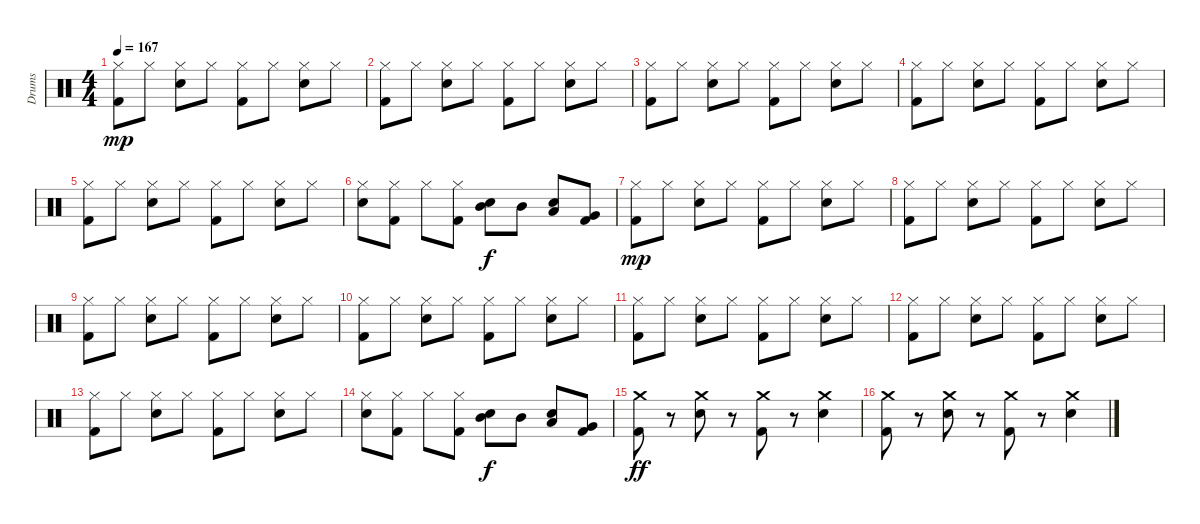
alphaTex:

\track ("Drums" "Drums") {instrument percussion}
\staff {score}
\articulation defaults
\ts (4 4)
\tempo 167
\clef neutral
\ks c
("Hi-Hat (closed)" "Kick (hit) 2").8{dy mp} "Hi-Hat (closed)".8 ("Hi-Hat (closed)" "Snare (hit) 2").8 "Hi-Hat (closed)".8 ("Hi-Hat (closed)" "Kick (hit) 2").8 "Hi-Hat (closed)".8 ("Hi-Hat (closed)" "Snare (hit) 2").8 "Hi-Hat (closed)".8 |
("Hi-Hat (closed)" "Kick (hit) 2").8 "Hi-Hat (closed)".8 ("Hi-Hat (closed)" "Snare (hit) 2").8 "Hi-Hat (closed)".8 ("Hi-Hat (closed)" "Kick (hit) 2").8 "Hi-Hat (closed)".8 ("Hi-Hat (closed)" "Snare (hit) 2").8 "Hi-Hat (closed)".8 |
("Hi-Hat (closed)" "Kick (hit) 2").8 "Hi-Hat (closed)".8 ("Hi-Hat (closed)" "Snare (hit) 2").8 "Hi-Hat (closed)".8 ("Hi-Hat (closed)" "Kick (hit) 2").8 "Hi-Hat (closed)".8 ("Hi-Hat (closed)" "Snare (hit) 2").8 "Hi-Hat (closed)".8 |
("Hi-Hat (closed)" "Kick (hit) 2").8 "Hi-Hat (closed)".8 ("Hi-Hat (closed)" "Snare (hit) 2").8 "Hi-Hat (closed)".8 ("Hi-Hat (closed)" "Kick (hit) 2").8 "Hi-Hat (closed)".8 ("Hi-Hat (closed)" "Snare (hit) 2").8 "Hi-Hat (closed)".8 |
("Hi-Hat (closed)" "Kick (hit) 2").8 "Hi-Hat (closed)".8 ("Hi-Hat (closed)" "Snare (hit) 2").8 "Hi-Hat (closed)".8 ("Hi-Hat (closed)" "Kick (hit) 2").8 "Hi-Hat (closed)".8 ("Hi-Hat (closed)" "Snare (hit) 2").8 "Hi-Hat (closed)".8 |
("Hi-Hat (closed)" "Snare (hit) 2").8 ("Hi-Hat (closed)" "Kick (hit) 2").8 "Hi-Hat (closed)".8 ("Hi-Hat (closed)" "Kick (hit) 2").8 ("Mid Tom (hit)" "Snare (hit) 2").8{dy f} "Mid Tom (hit)".8 ("Low Tom (hit)" "Snare (hit) 2").8 ("Very Low Tom (hit)" "Kick (hit) 2").8 |
("Hi-Hat (closed)" "Kick (hit) 2").8{dy mp} "Hi-Hat (closed)".8 ("Hi-Hat (closed)" "Snare (hit) 2").8 "Hi-Hat (closed)".8 ("Hi-Hat (closed)" "Kick (hit) 2").8 "Hi-Hat (closed)".8 ("Hi-Hat (closed)" "Snare (hit) 2").8 "Hi-Hat (closed)".8 |
("Hi-Hat (closed)" "Kick (hit) 2").8 "Hi-Hat (closed)".8 ("Hi-Hat (closed)" "Snare (hit) 2").8 "Hi-Hat (closed)".8 ("Hi-Hat (closed)" "Kick (hit) 2").8 "Hi-Hat (closed)".8 ("Hi-Hat (closed)" "Snare (hit) 2").8 "Hi-Hat (closed)".8 |
("Hi-Hat (closed)" "Kick (hit) 2").8 "Hi-Hat (closed)".8 ("Hi-Hat (closed)" "Snare (hit) 2").8 "Hi-Hat (closed)".8 ("Hi-Hat (closed)" "Kick (hit) 2").8 "Hi-Hat (closed)".8 ("Hi-Hat (closed)" "Snare (hit) 2").8 "Hi-Hat (closed)".8 |
("Hi-Hat (closed)" "Kick (hit) 2").8 "Hi-Hat (closed)".8 ("Hi-Hat (closed)" "Snare (hit) 2").8 "Hi-Hat (closed)".8 ("Hi-Hat (closed)" "Kick (hit) 2").8 "Hi-Hat (closed)".8 ("Hi-Hat (closed)" "Snare (hit) 2").8 "Hi-Hat (closed)".8 |
("Hi-Hat (closed)" "Kick (hit) 2").8 "Hi-Hat (closed)".8 ("Hi-Hat (closed)" "Snare (hit) 2").8 "Hi-Hat (closed)".8 ("Hi-Hat (closed)" "Kick (hit) 2").8 "Hi-Hat (closed)".8 ("Hi-Hat (closed)" "Snare (hit) 2").8 "Hi-Hat (closed)".8 |
("Hi-Hat (closed)" "Kick (hit) 2").8 "Hi-Hat (closed)".8 ("Hi-Hat (closed)" "Snare (hit) 2").8 "Hi-Hat (closed)".8 ("Hi-Hat (closed)" "Kick (hit) 2").8 "Hi-Hat (closed)".8 ("Hi-Hat (closed)" "Snare (hit) 2").8 "Hi-Hat (closed)".8 |
("Hi-Hat (closed)" "Kick (hit) 2").8 "Hi-Hat (closed)".8 ("Hi-Hat (closed)" "Snare (hit) 2").8 "Hi-Hat (closed)".8 ("Hi-Hat (closed)" "Kick (hit) 2").8 "Hi-Hat (closed)".8 ("Hi-Hat (closed)" "Snare (hit) 2").8 "Hi-Hat (closed)".8 |
("Hi-Hat (closed)" "Snare (hit) 2").8 ("Hi-Hat (closed)" "Kick (hit) 2").8 "Hi-Hat (closed)".8 ("Hi-Hat (closed)" "Kick (hit) 2").8 ("Mid Tom (hit)" "Snare (hit) 2").8{dy f} "Mid Tom (hit)".8 ("Low Tom (hit)" "Snare (hit) 2").8 ("Very Low Tom (hit)" "Kick (hit) 2").8 |
("Crash medium (hit)" "Kick (hit) 2").8{dy ff} r.8 ("Crash medium (hit)" "Snare (hit) 2").8 r.8 ("Crash medium (hit)" "Kick (hit) 2").8 r.8 ("Crash medium (hit)" "Snare (hit) 2").4 |
("Crash medium (hit)" "Kick (hit) 2").8 r.8 ("Crash medium (hit)" "Snare (hit) 2").8 r.8 ("Crash medium (hit)" "Kick (hit) 2").8 r.8 ("Crash medium (hit)" "Snare (hit) 2").4
